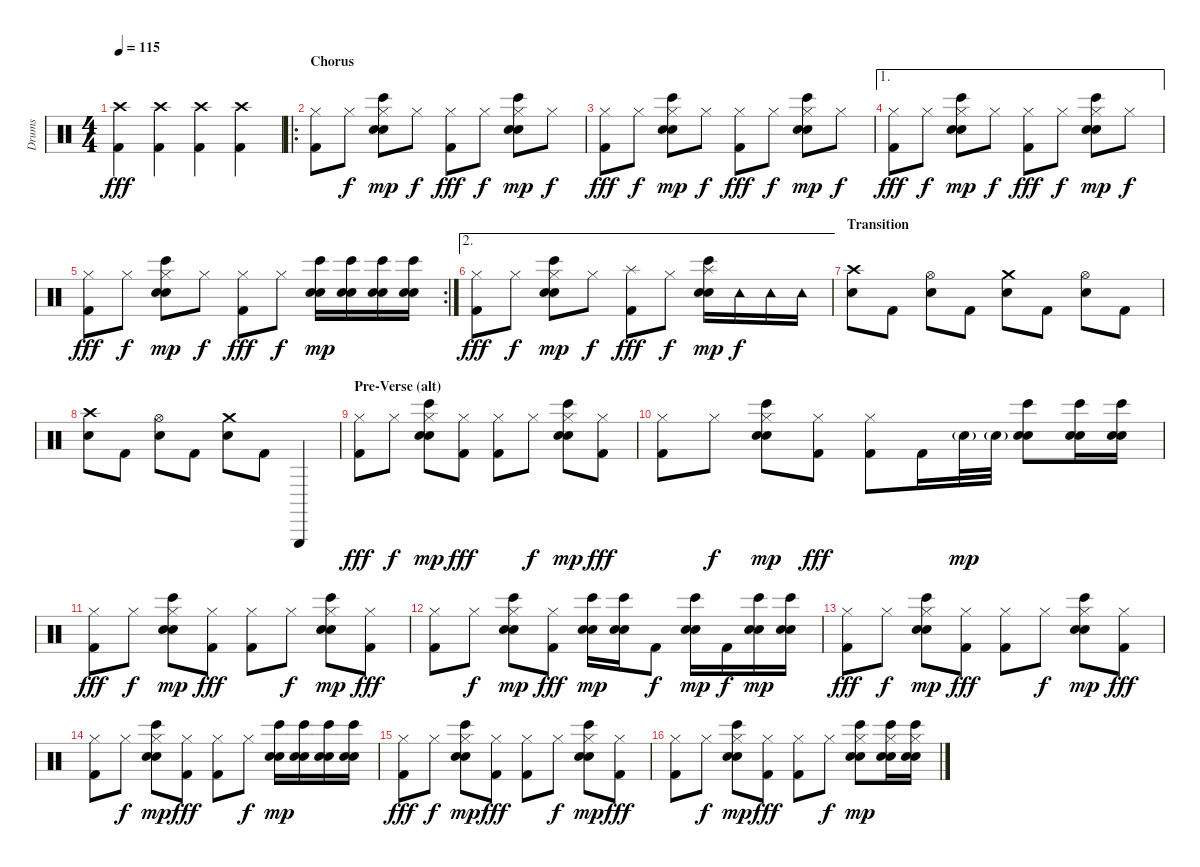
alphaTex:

\track ("Drums" "Drums") {instrument percussion}
\staff {score}
\articulation defaults
\ts (4 4)
\tempo 115
\clef neutral
\ks c
("Crash high (hit)" "Kick (hit) 2").4{dy fff} ("Crash high (hit)" "Kick (hit) 2").4 ("Crash high (hit)" "Kick (hit) 2").4 ("Crash high (hit)" "Kick (hit) 2").4 |
\ro
\section ("" "Chorus")
("Hi-Hat (closed)" "Kick (hit) 2").8 "Hi-Hat (closed)".8{dy f} ("Hi-Hat (closed)" "Bongo High (hit)" "Electric Snare (hit)" "Hand Clap (hit)").8{dy mp} "Hi-Hat (closed)".8{dy f} ("Hi-Hat (closed)" "Kick (hit) 2").8{dy fff} "Hi-Hat (closed)".8{dy f} ("Hi-Hat (closed)" "Bongo High (hit)" "Electric Snare (hit)" "Hand Clap (hit)").8{dy mp} "Hi-Hat (closed)".8{dy f} |
("Hi-Hat (closed)" "Kick (hit) 2").8{dy fff} "Hi-Hat (closed)".8{dy f} ("Hi-Hat (closed)" "Bongo High (hit)" "Electric Snare (hit)" "Hand Clap (hit)").8{dy mp} "Hi-Hat (closed)".8{dy f} ("Hi-Hat (closed)" "Kick (hit) 2").8{dy fff} "Hi-Hat (closed)".8{dy f} ("Hi-Hat (closed)" "Bongo High (hit)" "Electric Snare (hit)" "Hand Clap (hit)").8{dy mp} "Hi-Hat (closed)".8{dy f} |
\ae 1
("Hi-Hat (closed)" "Kick (hit) 2").8{dy fff} "Hi-Hat (closed)".8{dy f} ("Hi-Hat (closed)" "Bongo High (hit)" "Electric Snare (hit)" "Hand Clap (hit)").8{dy mp} "Hi-Hat (closed)".8{dy f} ("Hi-Hat (closed)" "Kick (hit) 2").8{dy fff} "Hi-Hat (closed)".8{dy f} ("Hi-Hat (closed)" "Bongo High (hit)" "Electric Snare (hit)" "Hand Clap (hit)").8{dy mp} "Hi-Hat (closed)".8{dy f} |
\rc 2
("Hi-Hat (closed)" "Kick (hit) 2").8{dy fff} "Hi-Hat (closed)".8{dy f} ("Hi-Hat (closed)" "Bongo High (hit)" "Electric Snare (hit)" "Hand Clap (hit)").8{dy mp} "Hi-Hat (closed)".8{dy f} ("Hi-Hat (closed)" "Kick (hit) 2").8{dy fff} "Hi-Hat (closed)".8{dy f} ("Bongo High (hit)" "Electric Snare (hit)" "Hand Clap (hit)").16{dy mp} ("Bongo High (hit)" "Electric Snare (hit)" "Hand Clap (hit)").16 ("Bongo High (hit)" "Electric Snare (hit)" "Hand Clap (hit)").16 ("Bongo High (hit)" "Electric Snare (hit)" "Hand Clap (hit)").16 |
\ae 2
("Hi-Hat (closed)" "Kick (hit) 2").8{dy fff} "Hi-Hat (closed)".8{dy f} ("Hi-Hat (closed)" "Bongo High (hit)" "Electric Snare (hit)" "Hand Clap (hit)").8{dy mp} "Hi-Hat (closed)".8{dy f} ("Splash (hit)" "Kick (hit) 2").8{dy fff} "Hi-Hat (closed)".8{dy f} ("Splash (hit)" "Bongo High (hit)" "Electric Snare (hit)" "Hand Clap (hit)").16{dy mp} "Tambourine (hit)".16{dy f} "Tambourine (hit)".16 "Tambourine (hit)".16 |
\section ("" "Transition")
("Crash high (hit)" "Electric Snare (hit)").8 "Kick (hit) 2".8 ("Hi-Hat (open)" "Electric Snare (hit)").8 "Kick (hit) 2".8 ("Crash medium (hit)" "Electric Snare (hit)").8 "Kick (hit) 2".8 ("Hi-Hat (open)" "Electric Snare (hit)").8 "Kick (hit) 2".8 |
("Crash high (hit)" "Electric Snare (hit)").8 "Kick (hit) 2".8 ("Hi-Hat (open)" "Electric Snare (hit)").8 "Kick (hit) 2".8 ("Crash medium (hit)" "Electric Snare (hit)").8 "Kick (hit) 2".8 "Triangle (hit)".4 |
\section ("" "Pre-Verse (alt)")
("Hi-Hat (closed)" "Kick (hit) 2").8{dy fff} "Hi-Hat (closed)".8{dy f} ("Hi-Hat (closed)" "Bongo High (hit)" "Electric Snare (hit)" "Hand Clap (hit)").8{dy mp} ("Hi-Hat (closed)" "Kick (hit) 2").8{dy fff} ("Hi-Hat (closed)" "Kick (hit) 2").8 "Hi-Hat (closed)".8{dy f} ("Hi-Hat (closed)" "Bongo High (hit)" "Electric Snare (hit)" "Hand Clap (hit)").8{dy mp} ("Hi-Hat (closed)" "Kick (hit) 2").8{dy fff} |
("Hi-Hat (closed)" "Kick (hit) 2").8 "Hi-Hat (closed)".8{dy f} ("Hi-Hat (closed)" "Bongo High (hit)" "Electric Snare (hit)" "Hand Clap (hit)").8{dy mp} ("Hi-Hat (closed)" "Kick (hit) 2").8{dy fff} ("Hi-Hat (closed)" "Kick (hit) 2").8 "Kick (hit) 2".16 "Electric Snare (hit)"{g}.32{dy mp} "Electric Snare (hit)"{g}.32 ("Bongo High (hit)" "Electric Snare (hit)" "Hand Clap (hit)").8 ("Bongo High (hit)" "Electric Snare (hit)" "Hand Clap (hit)").16 ("Bongo High (hit)" "Electric Snare (hit)" "Hand Clap (hit)").16 |
("Hi-Hat (closed)" "Kick (hit) 2").8{dy fff} "Hi-Hat (closed)".8{dy f} ("Hi-Hat (closed)" "Bongo High (hit)" "Electric Snare (hit)" "Hand Clap (hit)").8{dy mp} ("Hi-Hat (closed)" "Kick (hit) 2").8{dy fff} ("Hi-Hat (closed)" "Kick (hit) 2").8 "Hi-Hat (closed)".8{dy f} ("Hi-Hat (closed)" "Bongo High (hit)" "Electric Snare (hit)" "Hand Clap (hit)").8{dy mp} ("Hi-Hat (closed)" "Kick (hit) 2").8{dy fff} |
("Hi-Hat (closed)" "Kick (hit) 2").8 "Hi-Hat (closed)".8{dy f} ("Hi-Hat (closed)" "Bongo High (hit)" "Electric Snare (hit)" "Hand Clap (hit)").8{dy mp} ("Hi-Hat (closed)" "Kick (hit) 2").8{dy fff} ("Bongo High (hit)" "Electric Snare (hit)" "Hand Clap (hit)").16{dy mp} ("Bongo High (hit)" "Electric Snare (hit)" "Hand Clap (hit)").16 "Kick (hit) 2".8{dy f} ("Bongo High (hit)" "Electric Snare (hit)" "Hand Clap (hit)").16{dy mp} "Kick (hit) 2".16{dy f} ("Bongo High (hit)" "Electric Snare (hit)" "Hand Clap (hit)").16{dy mp} ("Bongo High (hit)" "Electric Snare (hit)" "Hand Clap (hit)").16 |
("Hi-Hat (closed)" "Kick (hit) 2").8{dy fff} "Hi-Hat (closed)".8{dy f} ("Hi-Hat (closed)" "Bongo High (hit)" "Electric Snare (hit)" "Hand Clap (hit)").8{dy mp} ("Hi-Hat (closed)" "Kick (hit) 2").8{dy fff} ("Hi-Hat (closed)" "Kick (hit) 2").8 "Hi-Hat (closed)".8{dy f} ("Hi-Hat (closed)" "Bongo High (hit)" "Electric Snare (hit)" "Hand Clap (hit)").8{dy mp} ("Hi-Hat (closed)" "Kick (hit) 2").8{dy fff} |
("Hi-Hat (closed)" "Kick (hit) 2").8 "Hi-Hat (closed)".8{dy f} ("Hi-Hat (closed)" "Bongo High (hit)" "Electric Snare (hit)" "Hand Clap (hit)").8{dy mp} ("Hi-Hat (closed)" "Kick (hit) 2").8{dy fff} ("Hi-Hat (closed)" "Kick (hit) 2").8 "Hi-Hat (closed)".8{dy f} ("Bongo High (hit)" "Electric Snare (hit)" "Hand Clap (hit)").16{dy mp} ("Bongo High (hit)" "Electric Snare (hit)" "Hand Clap (hit)").16 ("Bongo High (hit)" "Electric Snare (hit)" "Hand Clap (hit)").16 ("Bongo High (hit)" "Electric Snare (hit)" "Hand Clap (hit)").16 |
("Hi-Hat (closed)" "Kick (hit) 2").8{dy fff} "Hi-Hat (closed)".8{dy f} ("Hi-Hat (closed)" "Bongo High (hit)" "Electric Snare (hit)" "Hand Clap (hit)").8{dy mp} ("Hi-Hat (closed)" "Kick (hit) 2").8{dy fff} ("Hi-Hat (closed)" "Kick (hit) 2").8 "Hi-Hat (closed)".8{dy f} ("Hi-Hat (closed)" "Bongo High (hit)" "Electric Snare (hit)" "Hand Clap (hit)").8{dy mp} ("Hi-Hat (closed)" "Kick (hit) 2").8{dy fff} |
("Hi-Hat (closed)" "Kick (hit) 2").8 "Hi-Hat (closed)".8{dy f} ("Hi-Hat (closed)" "Bongo High (hit)" "Electric Snare (hit)" "Hand Clap (hit)").8{dy mp} ("Hi-Hat (closed)" "Kick (hit) 2").8{dy fff} ("Hi-Hat (closed)" "Kick (hit) 2").8 "Hi-Hat (closed)".8{dy f} ("Hi-Hat (closed)" "Bongo High (hit)" "Electric Snare (hit)" "Hand Clap (hit)").8{dy mp} ("Hi-Hat (closed)" "Bongo High (hit)" "Electric Snare (hit)" "Hand Clap (hit)").16 ("Hi-Hat (closed)" "Bongo High (hit)" "Electric Snare (hit)" "Hand Clap (hit)").16
